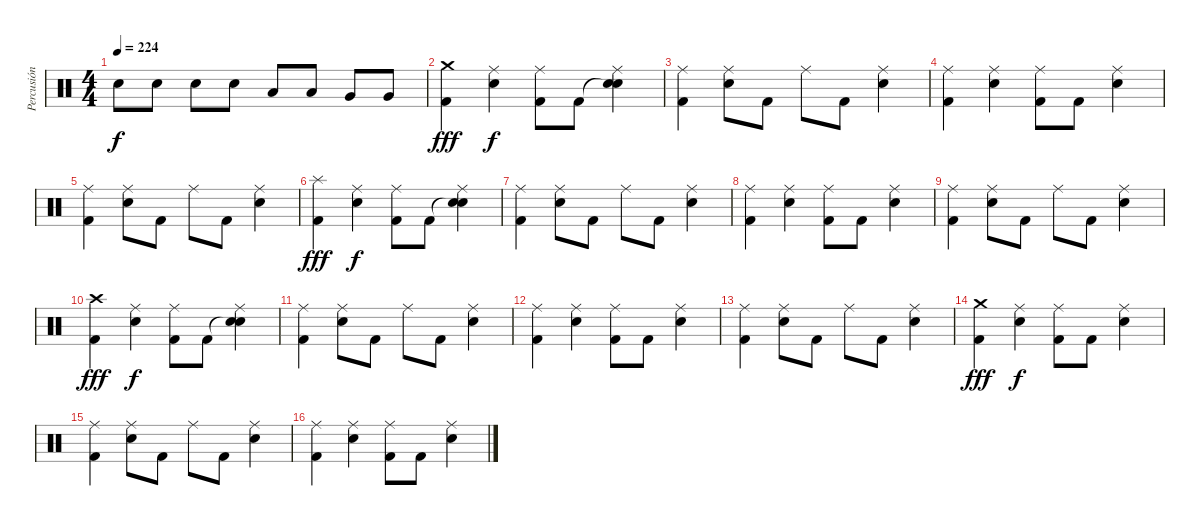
\track ("Percusión" "Percusión") {instrument percussion}
\staff {score}
\articulation defaults
\ts (4 4)
\tempo 224
\clef neutral
\ks c "Electric Snare (hit)".8{dy f} "Electric Snare (hit)".8 "Electric Snare (hit)".8 "Electric Snare (hit)".8 "Low Tom (hit)".8 "Low Tom (hit)".8 "Very Low Tom (hit)".8 "Very Low Tom (hit)".8
|
("Crash medium (hit)" "Kick (hit) 2").4{dy fff} ("Ride (middle)" "Electric Snare (hit)").4{dy f} ("Ride (middle)" "Kick (hit) 2").8 "Kick (hit) 2".8 ("Snare (hit)"{t} "Ride (middle)" "Electric Snare (hit)").4 |
("Ride (middle)" "Kick (hit) 2").4 ("Ride (middle)" "Electric Snare (hit)").8 "Kick (hit) 2".8 "Ride (middle)".8 "Kick (hit) 2".8 ("Ride (middle)" "Electric Snare (hit)").4 |
("Ride (middle)" "Kick (hit) 2").4 ("Ride (middle)" "Electric Snare (hit)").4 ("Ride (middle)" "Kick (hit) 2").8 "Kick (hit) 2".8 ("Ride (middle)" "Electric Snare (hit)").4 |
("Ride (middle)" "Kick (hit) 2").4 ("Ride (middle)" "Electric Snare (hit)").8 "Kick (hit) 2".8 "Ride (middle)".8 "Kick (hit) 2".8 ("Ride (middle)" "Electric Snare (hit)").4 |
("Splash (hit)" "Kick (hit) 2").4{dy fff} ("Ride (middle)" "Electric Snare (hit)").4{dy f} ("Ride (middle)" "Kick (hit) 2").8 "Kick (hit) 2".8 ("Snare (hit)"{t} "Ride (middle)" "Electric Snare (hit)").4 |
("Ride (middle)" "Kick (hit) 2").4 ("Ride (middle)" "Electric Snare (hit)").8 "Kick (hit) 2".8 "Ride (middle)".8 "Kick (hit) 2".8 ("Ride (middle)" "Electric Snare (hit)").4 |
("Ride (middle)" "Kick (hit) 2").4 ("Ride (middle)" "Electric Snare (hit)").4 ("Ride (middle)" "Kick (hit) 2").8 "Kick (hit) 2".8 ("Ride (middle)" "Electric Snare (hit)").4 |
("Ride (middle)" "Kick (hit) 2").4 ("Ride (middle)" "Electric Snare (hit)").8 "Kick (hit) 2".8 "Ride (middle)".8 "Kick (hit) 2".8 ("Ride (middle)" "Electric Snare (hit)").4 |
("Crash high (hit)" "Kick (hit) 2").4{dy fff} ("Ride (middle)" "Electric Snare (hit)").4{dy f} ("Ride (middle)" "Kick (hit) 2").8 "Kick (hit) 2".8 ("Snare (hit)"{t} "Ride (middle)" "Electric Snare (hit)").4 |
("Ride (middle)" "Kick (hit) 2").4 ("Ride (middle)" "Electric Snare (hit)").8 "Kick (hit) 2".8 "Ride (middle)".8 "Kick (hit) 2".8 ("Ride (middle)" "Electric Snare (hit)").4 |
("Ride (middle)" "Kick (hit) 2").4 ("Ride (middle)" "Electric Snare (hit)").4 ("Ride (middle)" "Kick (hit) 2").8 "Kick (hit) 2".8 ("Ride (middle)" "Electric Snare (hit)").4 |
("Ride (middle)" "Kick (hit) 2").4 ("Ride (middle)" "Electric Snare (hit)").8 "Kick (hit) 2".8 "Ride (middle)".8 "Kick (hit) 2".8 ("Ride (middle)" "Electric Snare (hit)").4 |
("Crash medium (hit)" "Kick (hit) 2").4{dy fff} ("Ride (middle)" "Electric Snare (hit)").4{dy f} ("Ride (middle)" "Kick (hit) 2").8 "Kick (hit) 2".8 ("Ride (middle)" "Electric Snare (hit)").4 |
("Ride (middle)" "Kick (hit) 2").4 ("Ride (middle)" "Electric Snare (hit)").8 "Kick (hit) 2".8 "Ride (middle)".8 "Kick (hit) 2".8 ("Ride (middle)" "Electric Snare (hit)").4 |
("Ride (middle)" "Kick (hit) 2").4 ("Ride (middle)" "Electric Snare (hit)").4 ("Ride (middle)" "Kick (hit) 2").8 "Kick (hit) 2".8 ("Ride (middle)" "Electric Snare (hit)").4
